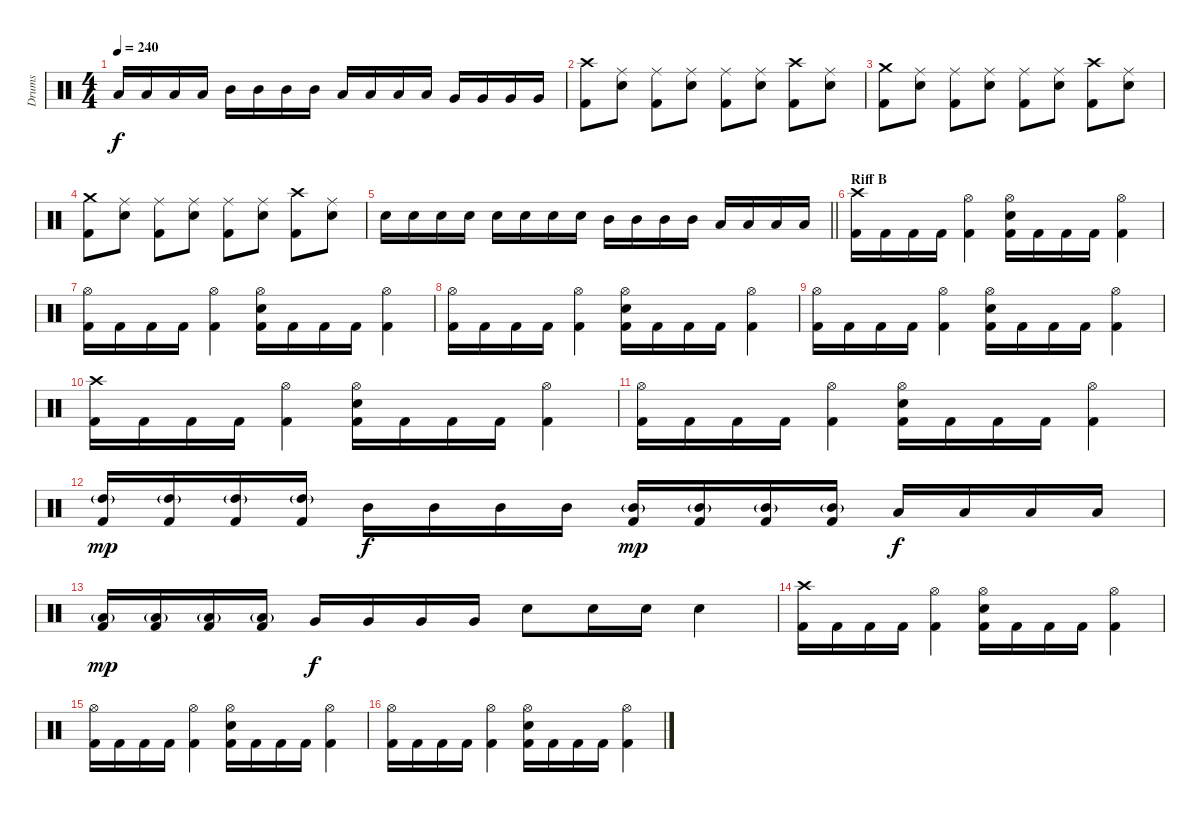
\track ("Drums" "Drums") {instrument percussion}
\staff {score}
\articulation defaults
\ts (4 4)
\tempo 240
\clef neutral
\ks c "Low Tom (hit)".16{dy f} "Low Tom (hit)".16 "Low Tom (hit)".16 "Low Tom (hit)".16 "Mid Tom (hit)".16 "Mid Tom (hit)".16 "Mid Tom (hit)".16 "Mid Tom (hit)".16 "Low Tom (hit)".16 "Low Tom (hit)".16 "Low Tom (hit)".16 "Low Tom (hit)".16 "Very Low Tom (hit)".16 "Very Low Tom (hit)".16 "Very Low Tom (hit)".16 "Very Low Tom (hit)".16
|
("Crash high (hit)" "Kick (hit) 2").8 ("Ride (middle)" "Electric Snare (hit)").8 ("Ride (middle)" "Kick (hit) 2").8 ("Ride (middle)" "Electric Snare (hit)").8 ("Ride (middle)" "Kick (hit) 2").8 ("Ride (middle)" "Electric Snare (hit)").8 ("Crash high (hit)" "Kick (hit) 2").8 ("Ride (middle)" "Electric Snare (hit)").8 |
("Crash medium (hit)" "Kick (hit) 2").8 ("Ride (middle)" "Electric Snare (hit)").8 ("Ride (middle)" "Kick (hit) 2").8 ("Ride (middle)" "Electric Snare (hit)").8 ("Ride (middle)" "Kick (hit) 2").8 ("Ride (middle)" "Electric Snare (hit)").8 ("Crash high (hit)" "Kick (hit) 2").8 ("Ride (middle)" "Electric Snare (hit)").8 |
("Crash medium (hit)" "Kick (hit) 2").8 ("Ride (middle)" "Electric Snare (hit)").8 ("Ride (middle)" "Kick (hit) 2").8 ("Ride (middle)" "Electric Snare (hit)").8 ("Ride (middle)" "Kick (hit) 2").8 ("Ride (middle)" "Electric Snare (hit)").8 ("Crash high (hit)" "Kick (hit) 2").8 ("Ride (middle)" "Electric Snare (hit)").8 |
\barLineRight lightlight "Electric Snare (hit)".16 "Electric Snare (hit)".16 "Electric Snare (hit)".16 "Electric Snare (hit)".16 "Electric Snare (hit)".16 "Electric Snare (hit)".16 "Electric Snare (hit)".16 "Electric Snare (hit)".16 "Mid Tom (hit)".16 "Mid Tom (hit)".16 "Mid Tom (hit)".16 "Mid Tom (hit)".16 "Low Tom (hit)".16 "Low Tom (hit)".16 "Low Tom (hit)".16 "Low Tom (hit)".16
|
\section ("" "Riff B")
("Crash high (hit)" "Kick (hit) 2").16 "Kick (hit) 2".16 "Kick (hit) 2".16 "Kick (hit) 2".16 ("Hi-Hat (open)" "Kick (hit) 2").4 ("Hi-Hat (open)" "Electric Snare (hit)" "Kick (hit) 2").16 "Kick (hit) 2".16 "Kick (hit) 2".16 "Kick (hit) 2".16 ("Hi-Hat (open)" "Kick (hit) 2").4 |
("Hi-Hat (open)" "Kick (hit) 2").16 "Kick (hit) 2".16 "Kick (hit) 2".16 "Kick (hit) 2".16 ("Hi-Hat (open)" "Kick (hit) 2").4 ("Hi-Hat (open)" "Electric Snare (hit)" "Kick (hit) 2").16 "Kick (hit) 2".16 "Kick (hit) 2".16 "Kick (hit) 2".16 ("Hi-Hat (open)" "Kick (hit) 2").4 |
("Hi-Hat (open)" "Kick (hit) 2").16 "Kick (hit) 2".16 "Kick (hit) 2".16 "Kick (hit) 2".16 ("Hi-Hat (open)" "Kick (hit) 2").4 ("Hi-Hat (open)" "Electric Snare (hit)" "Kick (hit) 2").16 "Kick (hit) 2".16 "Kick (hit) 2".16 "Kick (hit) 2".16 ("Hi-Hat (open)" "Kick (hit) 2").4 |
("Hi-Hat (open)" "Kick (hit) 2").16 "Kick (hit) 2".16 "Kick (hit) 2".16 "Kick (hit) 2".16 ("Hi-Hat (open)" "Kick (hit) 2").4 ("Hi-Hat (open)" "Electric Snare (hit)" "Kick (hit) 2").16 "Kick (hit) 2".16 "Kick (hit) 2".16 "Kick (hit) 2".16 ("Hi-Hat (open)" "Kick (hit) 2").4 |
("Crash high (hit)" "Kick (hit) 2").16 "Kick (hit) 2".16 "Kick (hit) 2".16 "Kick (hit) 2".16 ("Hi-Hat (open)" "Kick (hit) 2").4 ("Hi-Hat (open)" "Electric Snare (hit)" "Kick (hit) 2").16 "Kick (hit) 2".16 "Kick (hit) 2".16 "Kick (hit) 2".16 ("Hi-Hat (open)" "Kick (hit) 2").4 |
("Hi-Hat (open)" "Kick (hit) 2").16 "Kick (hit) 2".16 "Kick (hit) 2".16 "Kick (hit) 2".16 ("Hi-Hat (open)" "Kick (hit) 2").4 ("Hi-Hat (open)" "Electric Snare (hit)" "Kick (hit) 2").16 "Kick (hit) 2".16 "Kick (hit) 2".16 "Kick (hit) 2".16 ("Hi-Hat (open)" "Kick (hit) 2").4 |
("High Tom (hit)"{g} "Kick (hit) 2").16{dy mp} ("High Tom (hit)"{g} "Kick (hit) 2").16 ("High Tom (hit)"{g} "Kick (hit) 2").16 ("High Tom (hit)"{g} "Kick (hit) 2").16 "Mid Tom (hit)".16{dy f} "Mid Tom (hit)".16 "Mid Tom (hit)".16 "Mid Tom (hit)".16 ("Mid Tom (hit)"{g} "Kick (hit) 2").16{dy mp} ("Mid Tom (hit)"{g} "Kick (hit) 2").16 ("Mid Tom (hit)"{g} "Kick (hit) 2").16 ("Mid Tom (hit)"{g} "Kick (hit) 2").16 "Low Tom (hit)".16{dy f} "Low Tom (hit)".16 "Low Tom (hit)".16 "Low Tom (hit)".16 |
("Low Tom (hit)"{g} "Kick (hit) 2").16{dy mp} ("Low Tom (hit)"{g} "Kick (hit) 2").16 ("Low Tom (hit)"{g} "Kick (hit) 2").16 ("Low Tom (hit)"{g} "Kick (hit) 2").16 "Very Low Tom (hit)".16{dy f} "Very Low Tom (hit)".16 "Very Low Tom (hit)".16 "Very Low Tom (hit)".16 "Electric Snare (hit)".8 "Electric Snare (hit)".16 "Electric Snare (hit)".16 "Electric Snare (hit)".4 |
("Crash high (hit)" "Kick (hit) 2").16 "Kick (hit) 2".16 "Kick (hit) 2".16 "Kick (hit) 2".16 ("Hi-Hat (open)" "Kick (hit) 2").4 ("Hi-Hat (open)" "Electric Snare (hit)" "Kick (hit) 2").16 "Kick (hit) 2".16 "Kick (hit) 2".16 "Kick (hit) 2".16 ("Hi-Hat (open)" "Kick (hit) 2").4 |
("Hi-Hat (open)" "Kick (hit) 2").16 "Kick (hit) 2".16 "Kick (hit) 2".16 "Kick (hit) 2".16 ("Hi-Hat (open)" "Kick (hit) 2").4 ("Hi-Hat (open)" "Electric Snare (hit)" "Kick (hit) 2").16 "Kick (hit) 2".16 "Kick (hit) 2".16 "Kick (hit) 2".16 ("Hi-Hat (open)" "Kick (hit) 2").4 |
("Hi-Hat (open)" "Kick (hit) 2").16 "Kick (hit) 2".16 "Kick (hit) 2".16 "Kick (hit) 2".16 ("Hi-Hat (open)" "Kick (hit) 2").4 ("Hi-Hat (open)" "Electric Snare (hit)" "Kick (hit) 2").16 "Kick (hit) 2".16 "Kick (hit) 2".16 "Kick (hit) 2".16 ("Hi-Hat (open)" "Kick (hit) 2").4
